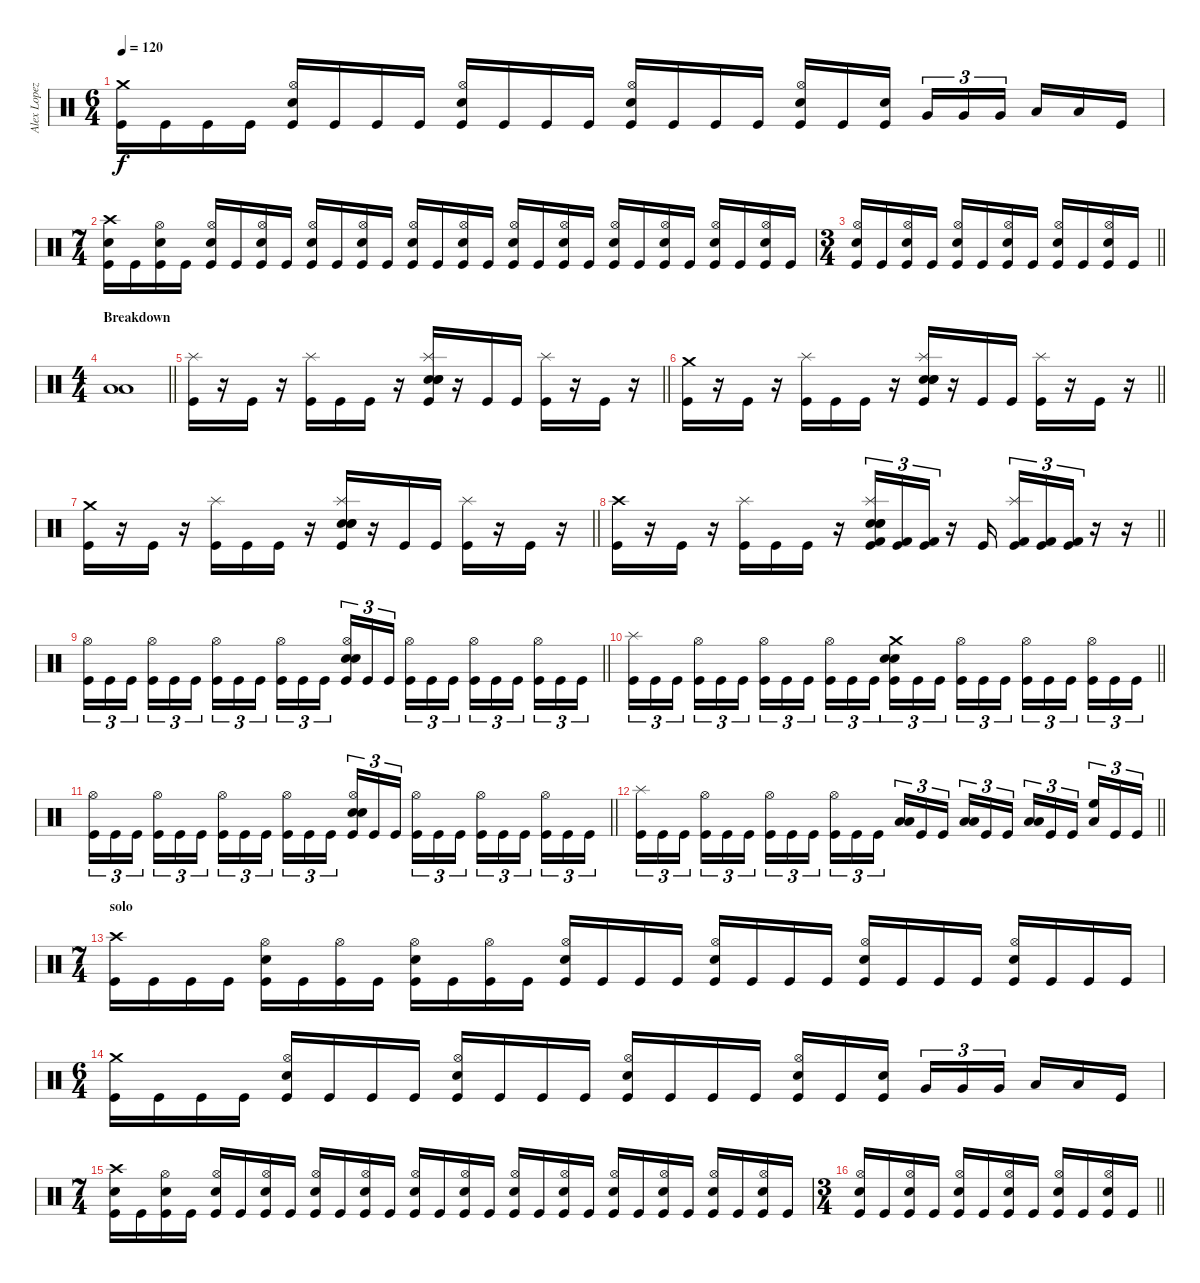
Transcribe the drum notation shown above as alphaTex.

\track ("Alex Lopez - Drums" "Alex Lopez") {instrument percussion}
\staff {score}
\articulation defaults
\ts (6 4)
\tempo 120
\clef neutral
\ks c
("Crash medium (hit)" "Kick (hit)").16{dy f} "Kick (hit)".16 "Kick (hit)".16 "Kick (hit)".16 ("Hi-Hat (open)" "Electric Snare (hit)" "Kick (hit)").16 "Kick (hit)".16 "Kick (hit)".16 "Kick (hit)".16 ("Hi-Hat (open)" "Electric Snare (hit)" "Kick (hit)").16 "Kick (hit)".16 "Kick (hit)".16 "Kick (hit)".16 ("Hi-Hat (open)" "Electric Snare (hit)" "Kick (hit)").16 "Kick (hit)".16 "Kick (hit)".16 "Kick (hit)".16 ("Hi-Hat (open)" "Electric Snare (hit)" "Kick (hit)").16 "Kick (hit)".16 ("Electric Snare (hit)" "Kick (hit)").16{beam splitsecondary} "Very Low Tom (hit)".16{tu (3 2)} "Very Low Tom (hit)".16{tu (3 2)} "Very Low Tom (hit)".16{tu (3 2) beam splitsecondary} "Low Floor Tom (hit)".16 "Low Floor Tom (hit)".16 "Kick (hit)".16 |
\ts (7 4)
("Crash high (hit)" "Electric Snare (hit)" "Kick (hit)").16 "Kick (hit)".16 ("Hi-Hat (open)" "Electric Snare (hit)" "Kick (hit)").16 "Kick (hit)".16 ("Hi-Hat (open)" "Electric Snare (hit)" "Kick (hit)").16 "Kick (hit)".16 ("Hi-Hat (open)" "Electric Snare (hit)" "Kick (hit)").16 "Kick (hit)".16 ("Hi-Hat (open)" "Electric Snare (hit)" "Kick (hit)").16 "Kick (hit)".16 ("Hi-Hat (open)" "Electric Snare (hit)" "Kick (hit)").16 "Kick (hit)".16 ("Hi-Hat (open)" "Electric Snare (hit)" "Kick (hit)").16 "Kick (hit)".16 ("Hi-Hat (open)" "Electric Snare (hit)" "Kick (hit)").16 "Kick (hit)".16 ("Hi-Hat (open)" "Electric Snare (hit)" "Kick (hit)").16 "Kick (hit)".16 ("Hi-Hat (open)" "Electric Snare (hit)" "Kick (hit)").16 "Kick (hit)".16 ("Hi-Hat (open)" "Electric Snare (hit)" "Kick (hit)").16 "Kick (hit)".16 ("Hi-Hat (open)" "Electric Snare (hit)" "Kick (hit)").16 "Kick (hit)".16 ("Hi-Hat (open)" "Electric Snare (hit)" "Kick (hit)").16 "Kick (hit)".16 ("Hi-Hat (open)" "Electric Snare (hit)" "Kick (hit)").16 "Kick (hit)".16 |
\ts (3 4)
\barLineRight lightlight
("Hi-Hat (open)" "Electric Snare (hit)" "Kick (hit)").16 "Kick (hit)".16 ("Hi-Hat (open)" "Electric Snare (hit)" "Kick (hit)").16 "Kick (hit)".16 ("Hi-Hat (open)" "Electric Snare (hit)" "Kick (hit)").16 "Kick (hit)".16 ("Hi-Hat (open)" "Electric Snare (hit)" "Kick (hit)").16 "Kick (hit)".16 ("Hi-Hat (open)" "Electric Snare (hit)" "Kick (hit)").16 "Kick (hit)".16 ("Hi-Hat (open)" "Electric Snare (hit)" "Kick (hit)").16 "Kick (hit)".16 |
\ts (4 4)
\section ("" "Breakdown")
\barLineRight lightlight
("Low Tom (hit)" "Low Floor Tom (hit)").1 |
\barLineRight lightlight
("Splash (hit)" "Kick (hit)").16 r.16 "Kick (hit)".16 r.16 ("Splash (hit)" "Kick (hit)").16 "Kick (hit)".16 "Kick (hit)".16 r.16 ("Snare (hit) 2" "Splash (hit)" "Electric Snare (hit)" "Electric Snare (hit)" "Kick (hit)").16 r.16 "Kick (hit)".16 "Kick (hit)".16 ("Splash (hit)" "Kick (hit)").16 r.16 "Kick (hit)".16 r.16 |
\barLineRight lightlight
("Crash medium (hit)" "Kick (hit)").16 r.16 "Kick (hit)".16 r.16 ("Splash (hit)" "Kick (hit)").16 "Kick (hit)".16 "Kick (hit)".16 r.16 ("Snare (hit) 2" "Splash (hit)" "Electric Snare (hit)" "Electric Snare (hit)" "Kick (hit)").16 r.16 "Kick (hit)".16 "Kick (hit)".16 ("Splash (hit)" "Kick (hit)").16 r.16 "Kick (hit)".16 r.16 |
\barLineRight lightlight
("Crash medium (hit)" "Kick (hit)").16 r.16 "Kick (hit)".16 r.16 ("Splash (hit)" "Kick (hit)").16 "Kick (hit)".16 "Kick (hit)".16 r.16 ("Snare (hit) 2" "Splash (hit)" "Electric Snare (hit)" "Electric Snare (hit)" "Kick (hit)").16 r.16 "Kick (hit)".16 "Kick (hit)".16 ("Splash (hit)" "Kick (hit)").16 r.16 "Kick (hit)".16 r.16 |
\barLineRight lightlight
("Crash high (hit)" "Kick (hit)").16 r.16 "Kick (hit)".16 r.16 ("Splash (hit)" "Kick (hit)").16 "Kick (hit)".16 "Kick (hit)".16 r.16 ("Snare (hit) 2" "Splash (hit)" "Kick (hit) 2" "Electric Snare (hit)" "Electric Snare (hit)" "Kick (hit)").16{tu (3 2)} ("Kick (hit) 2" "Kick (hit)").16{tu (3 2)} ("Kick (hit) 2" "Kick (hit)").16{tu (3 2)} r.16 "Kick (hit)".16 ("Splash (hit)" "Kick (hit) 2" "Kick (hit)").16{tu (3 2)} ("Kick (hit) 2" "Kick (hit)").16{tu (3 2)} ("Kick (hit) 2" "Kick (hit)").16{tu (3 2)} r.16 r.16 |
\barLineRight lightlight
("Hi-Hat (open)" "Kick (hit)").16{tu (3 2)} "Kick (hit)".16{tu (3 2)} "Kick (hit)".16{tu (3 2) beam splitsecondary} ("Hi-Hat (open)" "Kick (hit)").16{tu (3 2)} "Kick (hit)".16{tu (3 2)} "Kick (hit)".16{tu (3 2)} ("Hi-Hat (open)" "Kick (hit)").16{tu (3 2)} "Kick (hit)".16{tu (3 2)} "Kick (hit)".16{tu (3 2) beam splitsecondary} ("Hi-Hat (open)" "Kick (hit)").16{tu (3 2)} "Kick (hit)".16{tu (3 2)} "Kick (hit)".16{tu (3 2)} ("Hi-Hat (open)" "Electric Snare (hit)" "Snare (hit) 2" "Kick (hit)").16{tu (3 2)} "Kick (hit)".16{tu (3 2)} "Kick (hit)".16{tu (3 2) beam splitsecondary} ("Hi-Hat (open)" "Kick (hit)").16{tu (3 2)} "Kick (hit)".16{tu (3 2)} "Kick (hit)".16{tu (3 2)} ("Hi-Hat (open)" "Kick (hit)").16{tu (3 2)} "Kick (hit)".16{tu (3 2)} "Kick (hit)".16{tu (3 2) beam splitsecondary} ("Hi-Hat (open)" "Kick (hit)").16{tu (3 2)} "Kick (hit)".16{tu (3 2)} "Kick (hit)".16{tu (3 2)} |
\barLineRight lightlight
("Splash (hit)" "Kick (hit)").16{tu (3 2)} "Kick (hit)".16{tu (3 2)} "Kick (hit)".16{tu (3 2) beam splitsecondary} ("Hi-Hat (open)" "Kick (hit)").16{tu (3 2)} "Kick (hit)".16{tu (3 2)} "Kick (hit)".16{tu (3 2)} ("Hi-Hat (open)" "Kick (hit)").16{tu (3 2)} "Kick (hit)".16{tu (3 2)} "Kick (hit)".16{tu (3 2) beam splitsecondary} ("Hi-Hat (open)" "Kick (hit)").16{tu (3 2)} "Kick (hit)".16{tu (3 2)} "Kick (hit)".16{tu (3 2)} ("Crash medium (hit)" "Electric Snare (hit)" "Snare (hit) 2" "Kick (hit)").16{tu (3 2)} "Kick (hit)".16{tu (3 2)} "Kick (hit)".16{tu (3 2) beam splitsecondary} ("Hi-Hat (open)" "Kick (hit)").16{tu (3 2)} "Kick (hit)".16{tu (3 2)} "Kick (hit)".16{tu (3 2)} ("Hi-Hat (open)" "Kick (hit)").16{tu (3 2)} "Kick (hit)".16{tu (3 2)} "Kick (hit)".16{tu (3 2) beam splitsecondary} ("Hi-Hat (open)" "Kick (hit)").16{tu (3 2)} "Kick (hit)".16{tu (3 2)} "Kick (hit)".16{tu (3 2)} |
\barLineRight lightlight
("Hi-Hat (open)" "Kick (hit)").16{tu (3 2)} "Kick (hit)".16{tu (3 2)} "Kick (hit)".16{tu (3 2) beam splitsecondary} ("Hi-Hat (open)" "Kick (hit)").16{tu (3 2)} "Kick (hit)".16{tu (3 2)} "Kick (hit)".16{tu (3 2)} ("Hi-Hat (open)" "Kick (hit)").16{tu (3 2)} "Kick (hit)".16{tu (3 2)} "Kick (hit)".16{tu (3 2) beam splitsecondary} ("Hi-Hat (open)" "Kick (hit)").16{tu (3 2)} "Kick (hit)".16{tu (3 2)} "Kick (hit)".16{tu (3 2)} ("Hi-Hat (open)" "Electric Snare (hit)" "Snare (hit) 2" "Kick (hit)").16{tu (3 2)} "Kick (hit)".16{tu (3 2)} "Kick (hit)".16{tu (3 2) beam splitsecondary} ("Hi-Hat (open)" "Kick (hit)").16{tu (3 2)} "Kick (hit)".16{tu (3 2)} "Kick (hit)".16{tu (3 2)} ("Hi-Hat (open)" "Kick (hit)").16{tu (3 2)} "Kick (hit)".16{tu (3 2)} "Kick (hit)".16{tu (3 2) beam splitsecondary} ("Hi-Hat (open)" "Kick (hit)").16{tu (3 2)} "Kick (hit)".16{tu (3 2)} "Kick (hit)".16{tu (3 2)} |
\barLineRight lightlight
("Splash (hit)" "Kick (hit)").16{tu (3 2)} "Kick (hit)".16{tu (3 2)} "Kick (hit)".16{tu (3 2) beam splitsecondary} ("Hi-Hat (open)" "Kick (hit)").16{tu (3 2)} "Kick (hit)".16{tu (3 2)} "Kick (hit)".16{tu (3 2)} ("Hi-Hat (open)" "Kick (hit)").16{tu (3 2)} "Kick (hit)".16{tu (3 2)} "Kick (hit)".16{tu (3 2) beam splitsecondary} ("Hi-Hat (open)" "Kick (hit)").16{tu (3 2)} "Kick (hit)".16{tu (3 2)} "Kick (hit)".16{tu (3 2)} ("Low Tom (hit)" "Low Floor Tom (hit)").16{tu (3 2)} "Kick (hit)".16{tu (3 2)} "Kick (hit)".16{tu (3 2) beam splitsecondary} ("Low Tom (hit)" "Low Floor Tom (hit)").16{tu (3 2)} "Kick (hit)".16{tu (3 2)} "Kick (hit)".16{tu (3 2)} ("Low Tom (hit)" "Low Floor Tom (hit)").16{tu (3 2)} "Kick (hit)".16{tu (3 2)} "Kick (hit)".16{tu (3 2) beam splitsecondary} ("High Floor Tom (hit)" "Low Tom (hit)").16{tu (3 2)} "Kick (hit)".16{tu (3 2)} "Kick (hit)".16{tu (3 2)} |
\ts (7 4)
\section ("" "solo")
("Crash high (hit)" "Kick (hit)").16 "Kick (hit)".16 "Kick (hit)".16 "Kick (hit)".16 ("Hi-Hat (open)" "Electric Snare (hit)" "Kick (hit)").16 "Kick (hit)".16 ("Hi-Hat (open)" "Kick (hit)").16 "Kick (hit)".16 ("Hi-Hat (open)" "Electric Snare (hit)" "Kick (hit)").16 "Kick (hit)".16 ("Hi-Hat (open)" "Kick (hit)").16 "Kick (hit)".16 ("Hi-Hat (open)" "Electric Snare (hit)" "Kick (hit)").16 "Kick (hit)".16 "Kick (hit)".16 "Kick (hit)".16 ("Hi-Hat (open)" "Electric Snare (hit)" "Kick (hit)").16 "Kick (hit)".16 "Kick (hit)".16 "Kick (hit)".16 ("Hi-Hat (open)" "Electric Snare (hit)" "Kick (hit)").16 "Kick (hit)".16 "Kick (hit)".16 "Kick (hit)".16 ("Hi-Hat (open)" "Electric Snare (hit)" "Kick (hit)").16 "Kick (hit)".16 "Kick (hit)".16 "Kick (hit)".16 |
\ts (6 4)
("Crash medium (hit)" "Kick (hit)").16 "Kick (hit)".16 "Kick (hit)".16 "Kick (hit)".16 ("Hi-Hat (open)" "Electric Snare (hit)" "Kick (hit)").16 "Kick (hit)".16 "Kick (hit)".16 "Kick (hit)".16 ("Hi-Hat (open)" "Electric Snare (hit)" "Kick (hit)").16 "Kick (hit)".16 "Kick (hit)".16 "Kick (hit)".16 ("Hi-Hat (open)" "Electric Snare (hit)" "Kick (hit)").16 "Kick (hit)".16 "Kick (hit)".16 "Kick (hit)".16 ("Hi-Hat (open)" "Electric Snare (hit)" "Kick (hit)").16 "Kick (hit)".16 ("Electric Snare (hit)" "Kick (hit)").16{beam splitsecondary} "Very Low Tom (hit)".16{tu (3 2)} "Very Low Tom (hit)".16{tu (3 2)} "Very Low Tom (hit)".16{tu (3 2) beam splitsecondary} "Low Floor Tom (hit)".16 "Low Floor Tom (hit)".16 "Kick (hit)".16 |
\ts (7 4)
("Crash high (hit)" "Electric Snare (hit)" "Kick (hit)").16 "Kick (hit)".16 ("Hi-Hat (open)" "Electric Snare (hit)" "Kick (hit)").16 "Kick (hit)".16 ("Hi-Hat (open)" "Electric Snare (hit)" "Kick (hit)").16 "Kick (hit)".16 ("Hi-Hat (open)" "Electric Snare (hit)" "Kick (hit)").16 "Kick (hit)".16 ("Hi-Hat (open)" "Electric Snare (hit)" "Kick (hit)").16 "Kick (hit)".16 ("Hi-Hat (open)" "Electric Snare (hit)" "Kick (hit)").16 "Kick (hit)".16 ("Hi-Hat (open)" "Electric Snare (hit)" "Kick (hit)").16 "Kick (hit)".16 ("Hi-Hat (open)" "Electric Snare (hit)" "Kick (hit)").16 "Kick (hit)".16 ("Hi-Hat (open)" "Electric Snare (hit)" "Kick (hit)").16 "Kick (hit)".16 ("Hi-Hat (open)" "Electric Snare (hit)" "Kick (hit)").16 "Kick (hit)".16 ("Hi-Hat (open)" "Electric Snare (hit)" "Kick (hit)").16 "Kick (hit)".16 ("Hi-Hat (open)" "Electric Snare (hit)" "Kick (hit)").16 "Kick (hit)".16 ("Hi-Hat (open)" "Electric Snare (hit)" "Kick (hit)").16 "Kick (hit)".16 ("Hi-Hat (open)" "Electric Snare (hit)" "Kick (hit)").16 "Kick (hit)".16 |
\ts (3 4)
\barLineRight lightlight
("Hi-Hat (open)" "Electric Snare (hit)" "Kick (hit)").16 "Kick (hit)".16 ("Hi-Hat (open)" "Electric Snare (hit)" "Kick (hit)").16 "Kick (hit)".16 ("Hi-Hat (open)" "Electric Snare (hit)" "Kick (hit)").16 "Kick (hit)".16 ("Hi-Hat (open)" "Electric Snare (hit)" "Kick (hit)").16 "Kick (hit)".16 ("Hi-Hat (open)" "Electric Snare (hit)" "Kick (hit)").16 "Kick (hit)".16 ("Hi-Hat (open)" "Electric Snare (hit)" "Kick (hit)").16 "Kick (hit)".16
